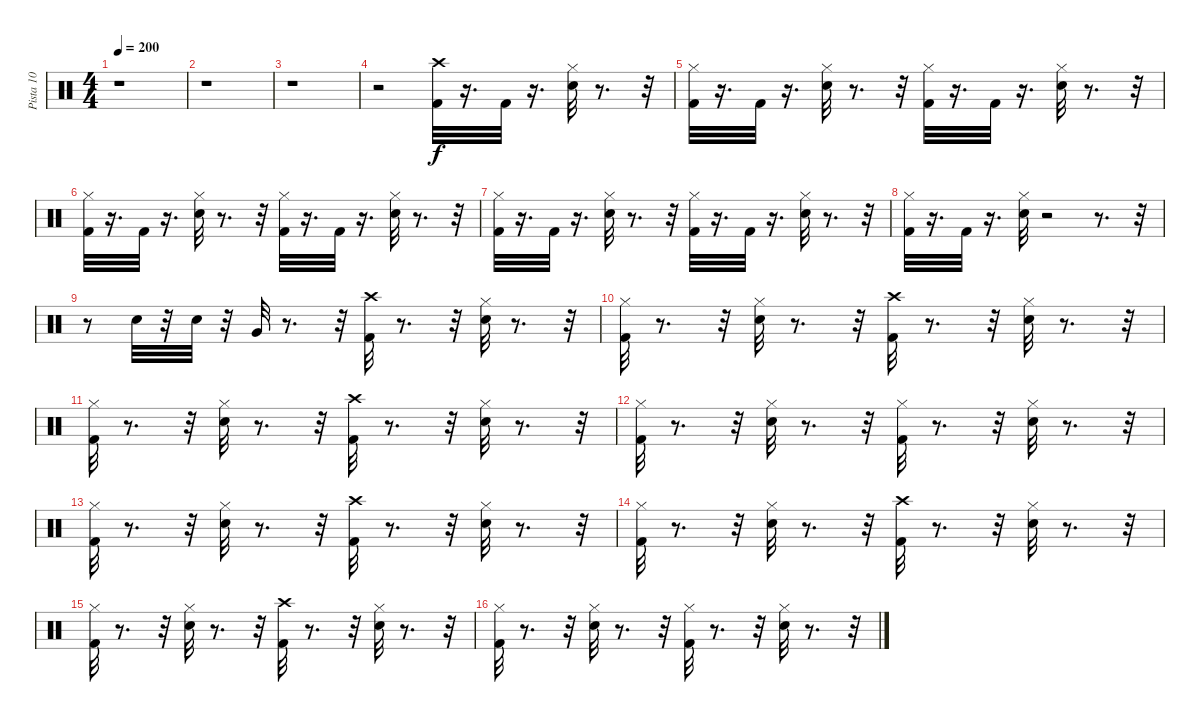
\track ("Pista 10" "Pista 10") {instrument percussion}
\staff {score}
\articulation defaults
\ts (4 4)
\tempo 200
\clef neutral
\ks c
r.1{dy f} |
r.1 |
r.1 |
r.2 ("Kick (hit) 2" "Crash high (hit)").32 r.16{d} "Kick (hit) 2".32 r.16{d} ("Snare (hit) 2" "Hi-Hat (closed)").32 r.8{d} r.32 |
("Kick (hit) 2" "Hi-Hat (closed)").32 r.16{d} "Kick (hit) 2".32 r.16{d} ("Snare (hit) 2" "Hi-Hat (closed)").32 r.8{d} r.32 ("Kick (hit) 2" "Hi-Hat (closed)").32 r.16{d} "Kick (hit) 2".32 r.16{d} ("Snare (hit) 2" "Hi-Hat (closed)").32 r.8{d} r.32 |
("Kick (hit) 2" "Hi-Hat (closed)").32 r.16{d} "Kick (hit) 2".32 r.16{d} ("Snare (hit) 2" "Hi-Hat (closed)").32 r.8{d} r.32 ("Kick (hit) 2" "Hi-Hat (closed)").32 r.16{d} "Kick (hit) 2".32 r.16{d} ("Snare (hit) 2" "Hi-Hat (closed)").32 r.8{d} r.32 |
("Kick (hit) 2" "Hi-Hat (closed)").32 r.16{d} "Kick (hit) 2".32 r.16{d} ("Snare (hit) 2" "Hi-Hat (closed)").32 r.8{d} r.32 ("Kick (hit) 2" "Hi-Hat (closed)").32 r.16{d} "Kick (hit) 2".32 r.16{d} ("Hi-Hat (closed)" "Snare (hit) 2").32 r.8{d} r.32 |
("Kick (hit) 2" "Hi-Hat (closed)").32 r.16{d} "Kick (hit) 2".32 r.16{d} ("Snare (hit) 2" "Hi-Hat (closed)").32 r.2 r.8{d} r.32 |
r.8 "Snare (hit) 2".32 r.32 "Snare (hit) 2".32 r.32 "Very Low Tom (hit)".32 r.8{d} r.32 ("Crash high (hit)" "Kick (hit) 2").32 r.8{d} r.32 ("Snare (hit) 2" "Hi-Hat (closed)").32 r.8{d} r.32 |
("Kick (hit) 2" "Hi-Hat (closed)").32 r.8{d} r.32 ("Snare (hit) 2" "Hi-Hat (closed)").32 r.8{d} r.32 ("Crash high (hit)" "Kick (hit) 2").32 r.8{d} r.32 ("Snare (hit) 2" "Hi-Hat (closed)").32 r.8{d} r.32 |
("Kick (hit) 2" "Hi-Hat (closed)").32 r.8{d} r.32 ("Snare (hit) 2" "Hi-Hat (closed)").32 r.8{d} r.32 ("Crash high (hit)" "Kick (hit) 2").32 r.8{d} r.32 ("Snare (hit) 2" "Hi-Hat (closed)").32 r.8{d} r.32 |
("Kick (hit) 2" "Hi-Hat (closed)").32 r.8{d} r.32 ("Snare (hit) 2" "Hi-Hat (closed)").32 r.8{d} r.32 ("Hi-Hat (closed)" "Kick (hit) 2").32 r.8{d} r.32 ("Snare (hit) 2" "Hi-Hat (closed)").32 r.8{d} r.32 |
("Kick (hit) 2" "Hi-Hat (closed)").32 r.8{d} r.32 ("Snare (hit) 2" "Hi-Hat (closed)").32 r.8{d} r.32 ("Crash high (hit)" "Kick (hit) 2").32 r.8{d} r.32 ("Snare (hit) 2" "Hi-Hat (closed)").32 r.8{d} r.32 |
("Kick (hit) 2" "Hi-Hat (closed)").32 r.8{d} r.32 ("Snare (hit) 2" "Hi-Hat (closed)").32 r.8{d} r.32 ("Crash high (hit)" "Kick (hit) 2").32 r.8{d} r.32 ("Snare (hit) 2" "Hi-Hat (closed)").32 r.8{d} r.32 |
("Kick (hit) 2" "Hi-Hat (closed)").32 r.8{d} r.32 ("Snare (hit) 2" "Hi-Hat (closed)").32 r.8{d} r.32 ("Crash high (hit)" "Kick (hit) 2").32 r.8{d} r.32 ("Snare (hit) 2" "Hi-Hat (closed)").32 r.8{d} r.32 |
("Kick (hit) 2" "Hi-Hat (closed)").32 r.8{d} r.32 ("Snare (hit) 2" "Hi-Hat (closed)").32 r.8{d} r.32 ("Kick (hit) 2" "Hi-Hat (closed)").32 r.8{d} r.32 ("Snare (hit) 2" "Hi-Hat (closed)").32 r.8{d} r.32
